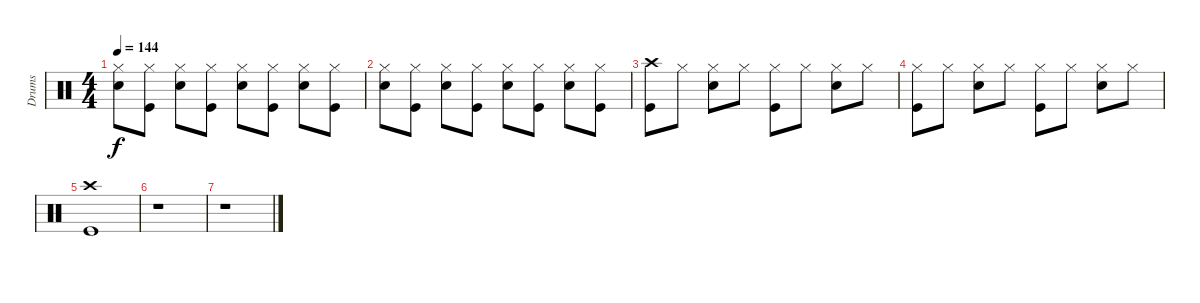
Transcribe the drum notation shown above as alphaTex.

\track ("Drums" "Drums") {instrument percussion}
\staff {score}
\articulation defaults
\ts (4 4)
\tempo 144
\clef neutral
\ks c
("Hi-Hat (closed)" "Snare (hit) 2").8{dy f} ("Hi-Hat (closed)" "Kick (hit)").8 ("Hi-Hat (closed)" "Snare (hit) 2").8 ("Hi-Hat (closed)" "Kick (hit)").8 ("Hi-Hat (closed)" "Snare (hit) 2").8 ("Hi-Hat (closed)" "Kick (hit)").8 ("Hi-Hat (closed)" "Snare (hit) 2").8 ("Hi-Hat (closed)" "Kick (hit)").8 |
("Hi-Hat (closed)" "Snare (hit) 2").8 ("Hi-Hat (closed)" "Kick (hit)").8 ("Hi-Hat (closed)" "Snare (hit) 2").8 ("Hi-Hat (closed)" "Kick (hit)").8 ("Hi-Hat (closed)" "Snare (hit) 2").8 ("Hi-Hat (closed)" "Kick (hit)").8 ("Hi-Hat (closed)" "Snare (hit) 2").8 ("Hi-Hat (closed)" "Kick (hit)").8 |
("Crash high (hit)" "Kick (hit)").8 "Hi-Hat (closed)".8 ("Hi-Hat (closed)" "Snare (hit) 2").8 "Hi-Hat (closed)".8 ("Hi-Hat (closed)" "Kick (hit)").8 "Hi-Hat (closed)".8 ("Hi-Hat (closed)" "Snare (hit) 2").8 "Hi-Hat (closed)".8 |
("Hi-Hat (closed)" "Kick (hit)").8 "Hi-Hat (closed)".8 ("Hi-Hat (closed)" "Snare (hit) 2").8 "Hi-Hat (closed)".8 ("Hi-Hat (closed)" "Kick (hit)").8 "Hi-Hat (closed)".8 ("Hi-Hat (closed)" "Snare (hit) 2").8 "Hi-Hat (closed)".8 |
("Crash high (hit)" "Kick (hit)").1 |
r.1 |
r.1
